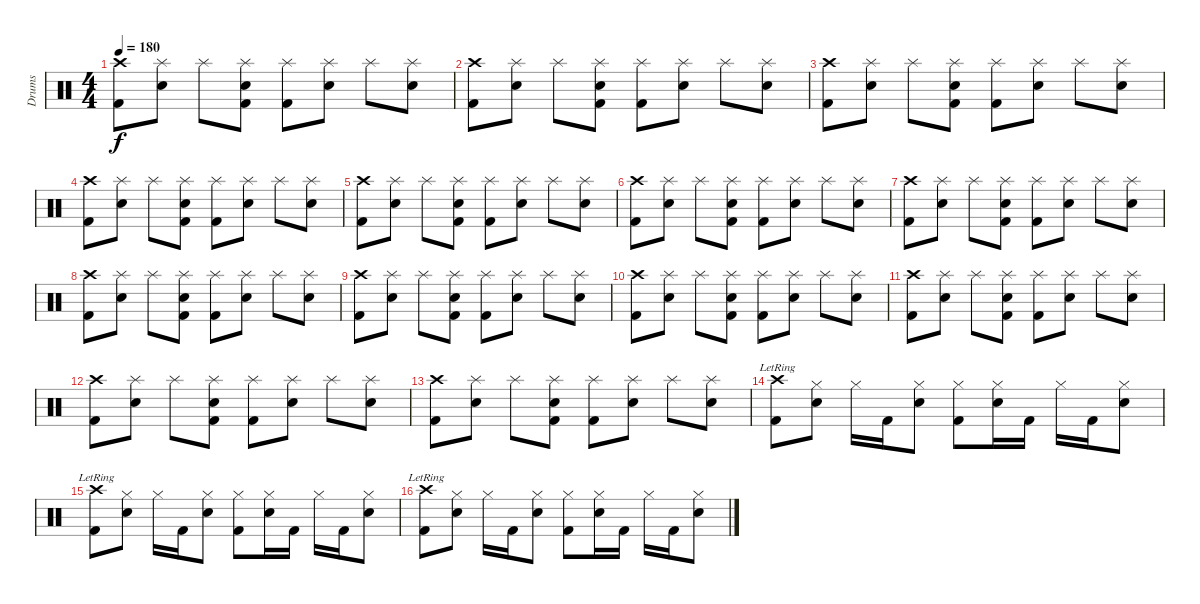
\track ("Drums" "Drums") {instrument percussion}
\staff {score}
\articulation defaults
\ts (4 4)
\tempo 180
\clef neutral
\ks c
("Crash high (hit)" "Kick (hit) 2").8{dy f} ("Splash (hit)" "Snare (hit) 2").8 "Splash (hit)".8 ("Splash (hit)" "Snare (hit) 2" "Kick (hit) 2").8 ("Splash (hit)" "Kick (hit) 2").8 ("Splash (hit)" "Snare (hit) 2").8 "Splash (hit)".8 ("Splash (hit)" "Snare (hit) 2").8 |
("Crash high (hit)" "Kick (hit) 2").8 ("Splash (hit)" "Snare (hit) 2").8 "Splash (hit)".8 ("Splash (hit)" "Snare (hit) 2" "Kick (hit) 2").8 ("Splash (hit)" "Kick (hit) 2").8 ("Splash (hit)" "Snare (hit) 2").8 "Splash (hit)".8 ("Splash (hit)" "Snare (hit) 2").8 |
("Crash high (hit)" "Kick (hit) 2").8 ("Splash (hit)" "Snare (hit) 2").8 "Splash (hit)".8 ("Splash (hit)" "Snare (hit) 2" "Kick (hit) 2").8 ("Splash (hit)" "Kick (hit) 2").8 ("Splash (hit)" "Snare (hit) 2").8 "Splash (hit)".8 ("Splash (hit)" "Snare (hit) 2").8 |
("Crash high (hit)" "Kick (hit) 2").8 ("Splash (hit)" "Snare (hit) 2").8 "Splash (hit)".8 ("Splash (hit)" "Snare (hit) 2" "Kick (hit) 2").8 ("Splash (hit)" "Kick (hit) 2").8 ("Splash (hit)" "Snare (hit) 2").8 "Splash (hit)".8 ("Splash (hit)" "Snare (hit) 2").8 |
("Crash high (hit)" "Kick (hit) 2").8 ("Splash (hit)" "Snare (hit) 2").8 "Splash (hit)".8 ("Splash (hit)" "Snare (hit) 2" "Kick (hit) 2").8 ("Splash (hit)" "Kick (hit) 2").8 ("Splash (hit)" "Snare (hit) 2").8 "Splash (hit)".8 ("Splash (hit)" "Snare (hit) 2").8 |
("Crash high (hit)" "Kick (hit) 2").8 ("Splash (hit)" "Snare (hit) 2").8 "Splash (hit)".8 ("Splash (hit)" "Snare (hit) 2" "Kick (hit) 2").8 ("Splash (hit)" "Kick (hit) 2").8 ("Splash (hit)" "Snare (hit) 2").8 "Splash (hit)".8 ("Splash (hit)" "Snare (hit) 2").8 |
("Crash high (hit)" "Kick (hit) 2").8 ("Splash (hit)" "Snare (hit) 2").8 "Splash (hit)".8 ("Splash (hit)" "Snare (hit) 2" "Kick (hit) 2").8 ("Splash (hit)" "Kick (hit) 2").8 ("Splash (hit)" "Snare (hit) 2").8 "Splash (hit)".8 ("Splash (hit)" "Snare (hit) 2").8 |
("Crash high (hit)" "Kick (hit) 2").8 ("Splash (hit)" "Snare (hit) 2").8 "Splash (hit)".8 ("Splash (hit)" "Snare (hit) 2" "Kick (hit) 2").8 ("Splash (hit)" "Kick (hit) 2").8 ("Splash (hit)" "Snare (hit) 2").8 "Splash (hit)".8 ("Splash (hit)" "Snare (hit) 2").8 |
("Crash high (hit)" "Kick (hit) 2").8 ("Splash (hit)" "Snare (hit) 2").8 "Splash (hit)".8 ("Splash (hit)" "Snare (hit) 2" "Kick (hit) 2").8 ("Splash (hit)" "Kick (hit) 2").8 ("Splash (hit)" "Snare (hit) 2").8 "Splash (hit)".8 ("Splash (hit)" "Snare (hit) 2").8 |
("Crash high (hit)" "Kick (hit) 2").8 ("Splash (hit)" "Snare (hit) 2").8 "Splash (hit)".8 ("Splash (hit)" "Snare (hit) 2" "Kick (hit) 2").8 ("Splash (hit)" "Kick (hit) 2").8 ("Splash (hit)" "Snare (hit) 2").8 "Splash (hit)".8 ("Splash (hit)" "Snare (hit) 2").8 |
("Crash high (hit)" "Kick (hit) 2").8 ("Splash (hit)" "Snare (hit) 2").8 "Splash (hit)".8 ("Splash (hit)" "Snare (hit) 2" "Kick (hit) 2").8 ("Splash (hit)" "Kick (hit) 2").8 ("Splash (hit)" "Snare (hit) 2").8 "Splash (hit)".8 ("Splash (hit)" "Snare (hit) 2").8 |
("Crash high (hit)" "Kick (hit) 2").8 ("Splash (hit)" "Snare (hit) 2").8 "Splash (hit)".8 ("Splash (hit)" "Snare (hit) 2" "Kick (hit) 2").8 ("Splash (hit)" "Kick (hit) 2").8 ("Splash (hit)" "Snare (hit) 2").8 "Splash (hit)".8 ("Splash (hit)" "Snare (hit) 2").8 |
("Crash high (hit)" "Kick (hit) 2").8 ("Splash (hit)" "Snare (hit) 2").8 "Splash (hit)".8 ("Splash (hit)" "Snare (hit) 2" "Kick (hit) 2").8 ("Splash (hit)" "Kick (hit) 2").8 ("Splash (hit)" "Snare (hit) 2").8 "Splash (hit)".8 ("Splash (hit)" "Snare (hit) 2").8 |
("Crash high (hit)"{lr} "Kick (hit) 2").8 ("Hi-Hat (closed)" "Snare (hit) 2").8 "Hi-Hat (closed)".16 "Kick (hit) 2".16 ("Hi-Hat (closed)" "Snare (hit) 2").8 ("Hi-Hat (closed)" "Kick (hit) 2").8 ("Hi-Hat (closed)" "Snare (hit) 2").16 "Kick (hit) 2".16 "Hi-Hat (closed)".16 "Kick (hit) 2".16 ("Hi-Hat (closed)" "Snare (hit) 2").8 |
("Crash high (hit)"{lr} "Kick (hit) 2").8 ("Hi-Hat (closed)" "Snare (hit) 2").8 "Hi-Hat (closed)".16 "Kick (hit) 2".16 ("Hi-Hat (closed)" "Snare (hit) 2").8 ("Hi-Hat (closed)" "Kick (hit) 2").8 ("Hi-Hat (closed)" "Snare (hit) 2").16 "Kick (hit) 2".16 "Hi-Hat (closed)".16 "Kick (hit) 2".16 ("Hi-Hat (closed)" "Snare (hit) 2").8 |
("Crash high (hit)"{lr} "Kick (hit) 2").8 ("Hi-Hat (closed)" "Snare (hit) 2").8 "Hi-Hat (closed)".16 "Kick (hit) 2".16 ("Hi-Hat (closed)" "Snare (hit) 2").8 ("Hi-Hat (closed)" "Kick (hit) 2").8 ("Hi-Hat (closed)" "Snare (hit) 2").16 "Kick (hit) 2".16 "Hi-Hat (closed)".16 "Kick (hit) 2".16 ("Hi-Hat (closed)" "Snare (hit) 2").8
